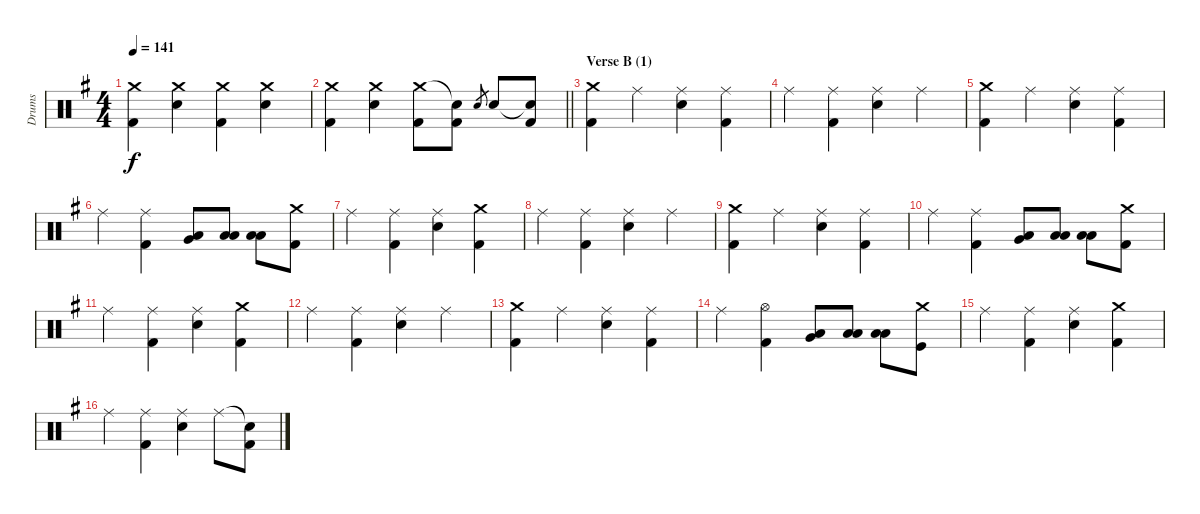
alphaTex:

\track ("Drums" "Drums") {instrument percussion}
\staff {score}
\articulation defaults
\ts (4 4)
\tempo 141
\clef neutral
\ks g
("Crash medium (hit)" "Kick (hit) 2").4{dy f} ("Crash medium (hit)" "Electric Snare (hit)").4 ("Crash medium (hit)" "Kick (hit) 2").4 ("Crash medium (hit)" "Electric Snare (hit)").4 |
\barLineRight lightlight
("Crash medium (hit)" "Kick (hit) 2").4 ("Crash medium (hit)" "Electric Snare (hit)").4 ("Crash medium (hit)" "Kick (hit) 2").8 ("Snare (hit)"{t} "Kick (hit) 2").8 "Electric Snare (hit)".8{gr} "Electric Snare (hit)".8 ("Snare (hit)"{t} "Kick (hit) 2").8 |
\section ("" "Verse B (1)")
("Crash medium (hit)" "Kick (hit) 2").4 "Ride (middle)".4 ("Ride (middle)" "Electric Snare (hit)").4 ("Ride (middle)" "Kick (hit) 2").4 |
"Ride (middle)".4 ("Ride (middle)" "Kick (hit) 2").4 ("Ride (middle)" "Electric Snare (hit)").4 "Ride (middle)".4 |
("Crash medium (hit)" "Kick (hit) 2").4 "Ride (middle)".4 ("Ride (middle)" "Electric Snare (hit)").4 ("Ride (middle)" "Kick (hit) 2").4 |
"Ride (middle)".4 ("Ride (middle)" "Kick (hit) 2").4 ("Low Tom (hit)" "Very Low Tom (hit)").8 ("Low Tom (hit)" "Low Floor Tom (hit)").8 ("Low Tom (hit)" "Low Floor Tom (hit)").8 ("Crash medium (hit)" "Kick (hit) 2").8 |
"Ride (middle)".4 ("Ride (middle)" "Kick (hit) 2").4 ("Ride (middle)" "Electric Snare (hit)").4 ("Crash medium (hit)" "Kick (hit) 2").4 |
"Ride (middle)".4 ("Ride (middle)" "Kick (hit) 2").4 ("Ride (middle)" "Electric Snare (hit)").4 "Ride (middle)".4 |
("Crash medium (hit)" "Kick (hit) 2").4 "Ride (middle)".4 ("Ride (middle)" "Electric Snare (hit)").4 ("Ride (middle)" "Kick (hit) 2").4 |
"Ride (middle)".4 ("Ride (middle)" "Kick (hit) 2").4 ("Low Tom (hit)" "Very Low Tom (hit)").8 ("Low Tom (hit)" "Low Floor Tom (hit)").8 ("Low Tom (hit)" "Low Floor Tom (hit)").8 ("Crash medium (hit)" "Kick (hit) 2").8 |
"Ride (middle)".4 ("Ride (middle)" "Kick (hit) 2").4 ("Ride (middle)" "Electric Snare (hit)").4 ("Crash medium (hit)" "Kick (hit) 2").4 |
"Ride (middle)".4 ("Ride (middle)" "Kick (hit) 2").4 ("Ride (middle)" "Electric Snare (hit)").4 "Ride (middle)".4 |
("Crash medium (hit)" "Kick (hit) 2").4 "Ride (middle)".4 ("Ride (middle)" "Electric Snare (hit)").4 ("Ride (middle)" "Kick (hit) 2").4 |
"Ride (middle)".4 ("Hi-Hat (open)" "Kick (hit) 2").4 ("Low Tom (hit)" "Very Low Tom (hit)").8 ("Low Tom (hit)" "Low Floor Tom (hit)").8 ("Low Tom (hit)" "Low Floor Tom (hit)").8 ("Crash medium (hit)" "Kick (hit)").8 |
"Ride (middle)".4 ("Ride (middle)" "Kick (hit) 2").4 ("Ride (middle)" "Electric Snare (hit)").4 ("Crash medium (hit)" "Kick (hit) 2").4 |
"Ride (middle)".4 ("Ride (middle)" "Kick (hit) 2").4 ("Ride (middle)" "Electric Snare (hit)").4 "Ride (middle)".8 ("Snare (hit)"{t} "Kick (hit) 2").8
